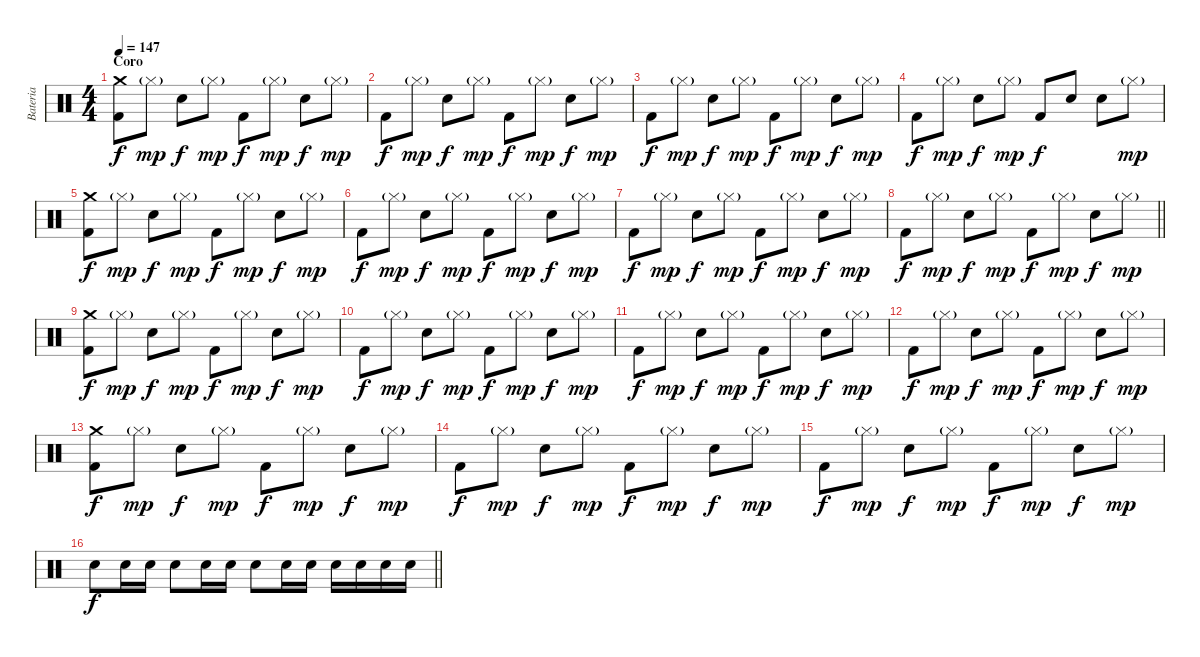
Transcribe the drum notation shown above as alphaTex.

\track ("Bateria" "Bateria") {instrument percussion}
\staff {score}
\articulation defaults
\ts (4 4)
\section ("" "Coro")
\tempo 147
\clef neutral
\ks c
("Crash medium (hit)" "Kick (hit) 2").8{dy f} "Hi-Hat (closed)"{g}.8{dy mp} "Electric Snare (hit)".8{dy f} "Hi-Hat (closed)"{g}.8{dy mp} "Kick (hit) 2".8{dy f} "Hi-Hat (closed)"{g}.8{dy mp} "Electric Snare (hit)".8{dy f} "Hi-Hat (closed)"{g}.8{dy mp} |
"Kick (hit) 2".8{dy f} "Hi-Hat (closed)"{g}.8{dy mp} "Electric Snare (hit)".8{dy f} "Hi-Hat (closed)"{g}.8{dy mp} "Kick (hit) 2".8{dy f} "Hi-Hat (closed)"{g}.8{dy mp} "Electric Snare (hit)".8{dy f} "Hi-Hat (closed)"{g}.8{dy mp} |
"Kick (hit) 2".8{dy f} "Hi-Hat (closed)"{g}.8{dy mp} "Electric Snare (hit)".8{dy f} "Hi-Hat (closed)"{g}.8{dy mp} "Kick (hit) 2".8{dy f} "Hi-Hat (closed)"{g}.8{dy mp} "Electric Snare (hit)".8{dy f} "Hi-Hat (closed)"{g}.8{dy mp} |
"Kick (hit) 2".8{dy f} "Hi-Hat (closed)"{g}.8{dy mp} "Electric Snare (hit)".8{dy f} "Hi-Hat (closed)"{g}.8{dy mp} "Kick (hit) 2".8{dy f} "Snare (hit) 2".8 "Electric Snare (hit)".8 "Hi-Hat (closed)"{g}.8{dy mp} |
("Crash medium (hit)" "Kick (hit) 2").8{dy f} "Hi-Hat (closed)"{g}.8{dy mp} "Electric Snare (hit)".8{dy f} "Hi-Hat (closed)"{g}.8{dy mp} "Kick (hit) 2".8{dy f} "Hi-Hat (closed)"{g}.8{dy mp} "Electric Snare (hit)".8{dy f} "Hi-Hat (closed)"{g}.8{dy mp} |
"Kick (hit) 2".8{dy f} "Hi-Hat (closed)"{g}.8{dy mp} "Electric Snare (hit)".8{dy f} "Hi-Hat (closed)"{g}.8{dy mp} "Kick (hit) 2".8{dy f} "Hi-Hat (closed)"{g}.8{dy mp} "Electric Snare (hit)".8{dy f} "Hi-Hat (closed)"{g}.8{dy mp} |
"Kick (hit) 2".8{dy f} "Hi-Hat (closed)"{g}.8{dy mp} "Electric Snare (hit)".8{dy f} "Hi-Hat (closed)"{g}.8{dy mp} "Kick (hit) 2".8{dy f} "Hi-Hat (closed)"{g}.8{dy mp} "Electric Snare (hit)".8{dy f} "Hi-Hat (closed)"{g}.8{dy mp} |
\barLineRight lightlight "Kick (hit) 2".8{dy f} "Hi-Hat (closed)"{g}.8{dy mp} "Electric Snare (hit)".8{dy f} "Hi-Hat (closed)"{g}.8{dy mp} "Kick (hit) 2".8{dy f} "Hi-Hat (closed)"{g}.8{dy mp} "Electric Snare (hit)".8{dy f} "Hi-Hat (closed)"{g}.8{dy mp}
|
\section ("" "")
("Crash medium (hit)" "Kick (hit) 2").8{dy f} "Hi-Hat (closed)"{g}.8{dy mp} "Electric Snare (hit)".8{dy f} "Hi-Hat (closed)"{g}.8{dy mp} "Kick (hit) 2".8{dy f} "Hi-Hat (closed)"{g}.8{dy mp} "Electric Snare (hit)".8{dy f} "Hi-Hat (closed)"{g}.8{dy mp} |
"Kick (hit) 2".8{dy f} "Hi-Hat (closed)"{g}.8{dy mp} "Electric Snare (hit)".8{dy f} "Hi-Hat (closed)"{g}.8{dy mp} "Kick (hit) 2".8{dy f} "Hi-Hat (closed)"{g}.8{dy mp} "Electric Snare (hit)".8{dy f} "Hi-Hat (closed)"{g}.8{dy mp} |
"Kick (hit) 2".8{dy f} "Hi-Hat (closed)"{g}.8{dy mp} "Electric Snare (hit)".8{dy f} "Hi-Hat (closed)"{g}.8{dy mp} "Kick (hit) 2".8{dy f} "Hi-Hat (closed)"{g}.8{dy mp} "Electric Snare (hit)".8{dy f} "Hi-Hat (closed)"{g}.8{dy mp} |
"Kick (hit) 2".8{dy f} "Hi-Hat (closed)"{g}.8{dy mp} "Electric Snare (hit)".8{dy f} "Hi-Hat (closed)"{g}.8{dy mp} "Kick (hit) 2".8{dy f} "Hi-Hat (closed)"{g}.8{dy mp} "Electric Snare (hit)".8{dy f} "Hi-Hat (closed)"{g}.8{dy mp} |
("Crash medium (hit)" "Kick (hit) 2").8{dy f} "Hi-Hat (closed)"{g}.8{dy mp} "Electric Snare (hit)".8{dy f} "Hi-Hat (closed)"{g}.8{dy mp} "Kick (hit) 2".8{dy f} "Hi-Hat (closed)"{g}.8{dy mp} "Electric Snare (hit)".8{dy f} "Hi-Hat (closed)"{g}.8{dy mp} |
"Kick (hit) 2".8{dy f} "Hi-Hat (closed)"{g}.8{dy mp} "Electric Snare (hit)".8{dy f} "Hi-Hat (closed)"{g}.8{dy mp} "Kick (hit) 2".8{dy f} "Hi-Hat (closed)"{g}.8{dy mp} "Electric Snare (hit)".8{dy f} "Hi-Hat (closed)"{g}.8{dy mp} |
"Kick (hit) 2".8{dy f} "Hi-Hat (closed)"{g}.8{dy mp} "Electric Snare (hit)".8{dy f} "Hi-Hat (closed)"{g}.8{dy mp} "Kick (hit) 2".8{dy f} "Hi-Hat (closed)"{g}.8{dy mp} "Electric Snare (hit)".8{dy f} "Hi-Hat (closed)"{g}.8{dy mp} |
\barLineRight lightlight "Electric Snare (hit)".8{dy f} "Electric Snare (hit)".16 "Electric Snare (hit)".16 "Electric Snare (hit)".8 "Electric Snare (hit)".16 "Electric Snare (hit)".16 "Electric Snare (hit)".8 "Electric Snare (hit)".16 "Electric Snare (hit)".16 "Electric Snare (hit)".16 "Electric Snare (hit)".16 "Electric Snare (hit)".16 "Electric Snare (hit)".16
